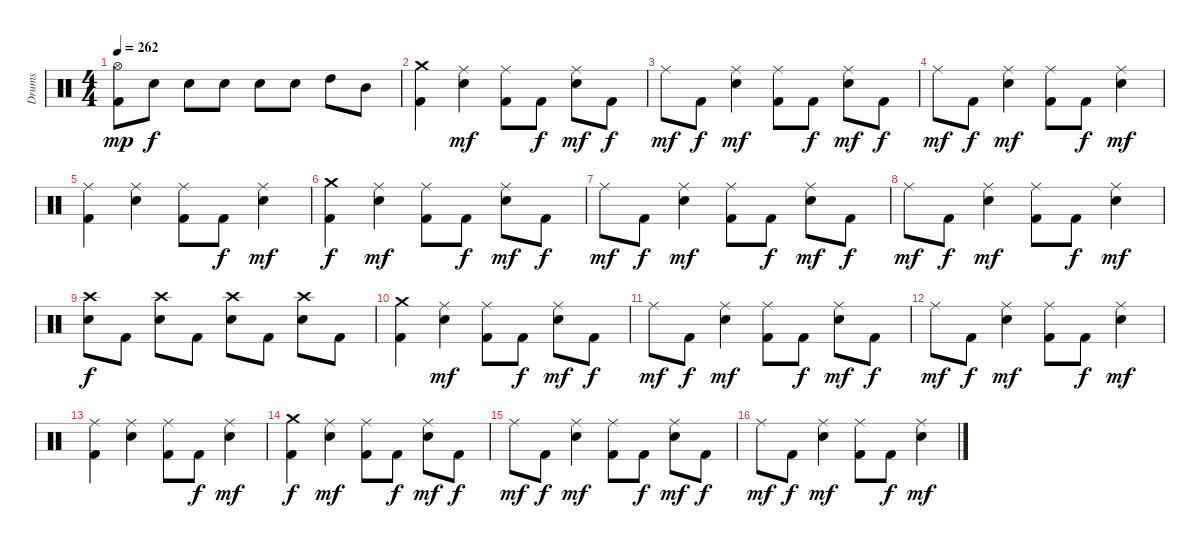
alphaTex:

\track ("Drums" "Drums") {instrument percussion}
\staff {score}
\articulation defaults
\ts (4 4)
\tempo 262
\clef neutral
\ks c
("Hi-Hat (open)" "Kick (hit) 2").8{dy mp} "Snare (hit) 2".8{dy f} "Snare (hit) 2".8 "Snare (hit) 2".8 "Snare (hit) 2".8 "Snare (hit) 2".8 "High Tom (hit)".8 "Mid Tom (hit)".8 |
("Crash medium (hit)" "Kick (hit) 2").4 ("Ride (middle)" "Snare (hit) 2").4{dy mf} ("Ride (middle)" "Kick (hit) 2").8 "Kick (hit) 2".8{dy f} ("Ride (middle)" "Snare (hit) 2").8{dy mf} "Kick (hit) 2".8{dy f} |
"Ride (middle)".8{dy mf} "Kick (hit) 2".8{dy f} ("Ride (middle)" "Snare (hit) 2").4{dy mf} ("Ride (middle)" "Kick (hit) 2").8 "Kick (hit) 2".8{dy f} ("Ride (middle)" "Snare (hit) 2").8{dy mf} "Kick (hit) 2".8{dy f} |
"Ride (middle)".8{dy mf} "Kick (hit) 2".8{dy f} ("Ride (middle)" "Snare (hit) 2").4{dy mf} ("Ride (middle)" "Kick (hit) 2").8 "Kick (hit) 2".8{dy f} ("Ride (middle)" "Snare (hit) 2").4{dy mf} |
("Ride (middle)" "Kick (hit) 2").4 ("Ride (middle)" "Snare (hit) 2").4 ("Ride (middle)" "Kick (hit) 2").8 "Kick (hit) 2".8{dy f} ("Ride (middle)" "Snare (hit) 2").4{dy mf} |
("Crash medium (hit)" "Kick (hit) 2").4{dy f} ("Ride (middle)" "Snare (hit) 2").4{dy mf} ("Ride (middle)" "Kick (hit) 2").8 "Kick (hit) 2".8{dy f} ("Ride (middle)" "Snare (hit) 2").8{dy mf} "Kick (hit) 2".8{dy f} |
"Ride (middle)".8{dy mf} "Kick (hit) 2".8{dy f} ("Ride (middle)" "Snare (hit) 2").4{dy mf} ("Ride (middle)" "Kick (hit) 2").8 "Kick (hit) 2".8{dy f} ("Ride (middle)" "Snare (hit) 2").8{dy mf} "Kick (hit) 2".8{dy f} |
"Ride (middle)".8{dy mf} "Kick (hit) 2".8{dy f} ("Ride (middle)" "Snare (hit) 2").4{dy mf} ("Ride (middle)" "Kick (hit) 2").8 "Kick (hit) 2".8{dy f} ("Ride (middle)" "Snare (hit) 2").4{dy mf} |
("Crash high (hit)" "Snare (hit) 2").8{dy f} "Kick (hit) 2".8 ("Crash high (hit)" "Snare (hit) 2").8 "Kick (hit) 2".8 ("Crash high (hit)" "Snare (hit) 2").8 "Kick (hit) 2".8 ("Crash high (hit)" "Snare (hit) 2").8 "Kick (hit) 2".8 |
("Crash medium (hit)" "Kick (hit) 2").4 ("Ride (middle)" "Snare (hit) 2").4{dy mf} ("Ride (middle)" "Kick (hit) 2").8 "Kick (hit) 2".8{dy f} ("Ride (middle)" "Snare (hit) 2").8{dy mf} "Kick (hit) 2".8{dy f} |
"Ride (middle)".8{dy mf} "Kick (hit) 2".8{dy f} ("Ride (middle)" "Snare (hit) 2").4{dy mf} ("Ride (middle)" "Kick (hit) 2").8 "Kick (hit) 2".8{dy f} ("Ride (middle)" "Snare (hit) 2").8{dy mf} "Kick (hit) 2".8{dy f} |
"Ride (middle)".8{dy mf} "Kick (hit) 2".8{dy f} ("Ride (middle)" "Snare (hit) 2").4{dy mf} ("Ride (middle)" "Kick (hit) 2").8 "Kick (hit) 2".8{dy f} ("Ride (middle)" "Snare (hit) 2").4{dy mf} |
("Ride (middle)" "Kick (hit) 2").4 ("Ride (middle)" "Snare (hit) 2").4 ("Ride (middle)" "Kick (hit) 2").8 "Kick (hit) 2".8{dy f} ("Ride (middle)" "Snare (hit) 2").4{dy mf} |
("Crash medium (hit)" "Kick (hit) 2").4{dy f} ("Ride (middle)" "Snare (hit) 2").4{dy mf} ("Ride (middle)" "Kick (hit) 2").8 "Kick (hit) 2".8{dy f} ("Ride (middle)" "Snare (hit) 2").8{dy mf} "Kick (hit) 2".8{dy f} |
"Ride (middle)".8{dy mf} "Kick (hit) 2".8{dy f} ("Ride (middle)" "Snare (hit) 2").4{dy mf} ("Ride (middle)" "Kick (hit) 2").8 "Kick (hit) 2".8{dy f} ("Ride (middle)" "Snare (hit) 2").8{dy mf} "Kick (hit) 2".8{dy f} |
"Ride (middle)".8{dy mf} "Kick (hit) 2".8{dy f} ("Ride (middle)" "Snare (hit) 2").4{dy mf} ("Ride (middle)" "Kick (hit) 2").8 "Kick (hit) 2".8{dy f} ("Ride (middle)" "Snare (hit) 2").4{dy mf}
